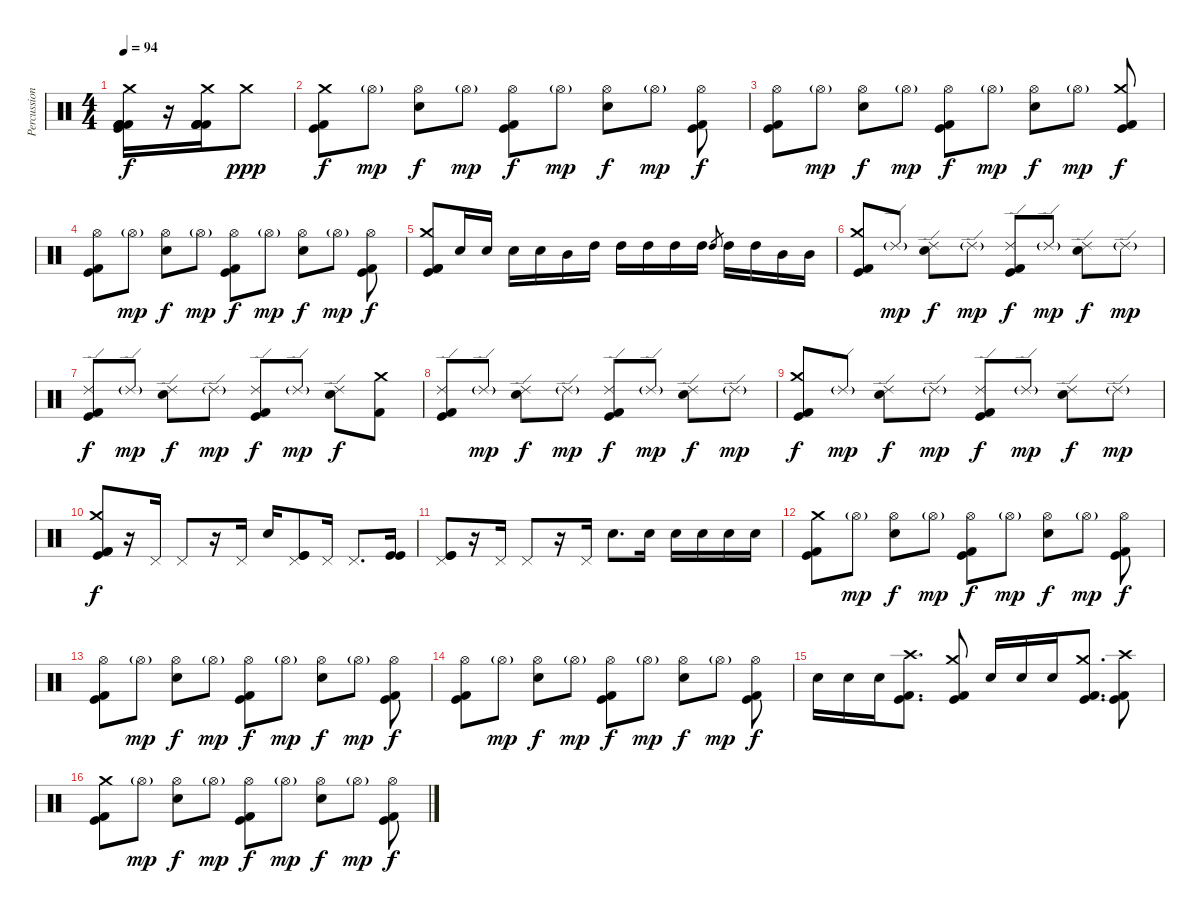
\track ("Percussion" "Percussion") {solo instrument percussion}
\staff {score}
\articulation defaults
\ts (4 4)
\tempo 94
\clef neutral
\ks c
("Kick (hit) 2" "Kick (hit) 2" "Kick (hit) 2" "Crash medium (hit)" "Kick (hit)").16{dy f} r.16 ("Kick (hit) 2" "Kick (hit) 2" "Kick (hit) 2" "Crash medium (hit)" "Kick (hit) 2").16 "Crash medium (hit)".8{dy ppp} |
("Kick (hit) 2" "Crash medium (hit)" "Kick (hit)").8{dy f} "Hi-Hat (open)"{g}.8{dy mp} ("Hi-Hat (open)" "Electric Snare (hit)").8{dy f} "Hi-Hat (open)"{g}.8{dy mp} ("Kick (hit) 2" "Hi-Hat (open)" "Kick (hit)").8{dy f} "Hi-Hat (open)"{g}.8{dy mp} ("Hi-Hat (open)" "Electric Snare (hit)").8{dy f} "Hi-Hat (open)"{g}.8{dy mp} ("Kick (hit) 2" "Hi-Hat (open)" "Kick (hit)").8{dy f} |
("Kick (hit) 2" "Hi-Hat (open)" "Kick (hit)").8 "Hi-Hat (open)"{g}.8{dy mp} ("Hi-Hat (open)" "Electric Snare (hit)").8{dy f} "Hi-Hat (open)"{g}.8{dy mp} ("Kick (hit) 2" "Hi-Hat (open)" "Kick (hit)").8{dy f} "Hi-Hat (open)"{g}.8{dy mp} ("Hi-Hat (open)" "Electric Snare (hit)").8{dy f} "Hi-Hat (open)"{g}.8{dy mp} ("Kick (hit) 2" "Crash medium (hit)" "Kick (hit)").8{dy f} |
("Kick (hit) 2" "Hi-Hat (open)" "Kick (hit)").8 "Hi-Hat (open)"{g}.8{dy mp} ("Hi-Hat (open)" "Electric Snare (hit)").8{dy f} "Hi-Hat (open)"{g}.8{dy mp} ("Kick (hit) 2" "Hi-Hat (open)" "Kick (hit)").8{dy f} "Hi-Hat (open)"{g}.8{dy mp} ("Hi-Hat (open)" "Electric Snare (hit)").8{dy f} "Hi-Hat (open)"{g}.8{dy mp} ("Kick (hit) 2" "Hi-Hat (open)" "Kick (hit)").8{dy f} |
("Kick (hit) 2" "Kick (hit) 2" "Crash medium (hit)" "Kick (hit)").8 "Electric Snare (hit)".16 "Electric Snare (hit)".16 "Electric Snare (hit)".16 "Electric Snare (hit)".16 "Mid Tom (hit)".16 "High Tom (hit)".16 "High Tom (hit)".16 "High Tom (hit)".16 "High Tom (hit)".16 "High Tom (hit)".16 "High Tom (hit)".8{gr} "High Tom (hit)".16 "High Tom (hit)".16 "Mid Tom (hit)".16 "Mid Tom (hit)".16 |
("Kick (hit) 2" "Crash medium (hit)" "Kick (hit)").8 "Ride (edge) 2"{g}.8{dy mp} ("Ride (edge) 2" "Electric Snare (hit)").8{dy f} "Ride (edge) 2"{g}.8{dy mp} ("Kick (hit) 2" "Ride (edge) 2" "Kick (hit)").8{dy f} "Ride (edge) 2"{g}.8{dy mp} ("Ride (edge) 2" "Electric Snare (hit)").8{dy f} "Ride (edge) 2"{g}.8{dy mp} |
("Kick (hit) 2" "Ride (edge) 2" "Kick (hit)").8{dy f} "Ride (edge) 2"{g}.8{dy mp} ("Ride (edge) 2" "Electric Snare (hit)").8{dy f} "Ride (edge) 2"{g}.8{dy mp} ("Kick (hit) 2" "Ride (edge) 2" "Kick (hit)").8{dy f} "Ride (edge) 2"{g}.8{dy mp} ("Ride (edge) 2" "Electric Snare (hit)").8{dy f} ("Crash medium (hit)" "Kick (hit) 2").8 |
("Kick (hit) 2" "Ride (edge) 2" "Kick (hit)").8 "Ride (edge) 2"{g}.8{dy mp} ("Ride (edge) 2" "Electric Snare (hit)").8{dy f} "Ride (edge) 2"{g}.8{dy mp} ("Kick (hit) 2" "Ride (edge) 2" "Kick (hit)").8{dy f} "Ride (edge) 2"{g}.8{dy mp} ("Ride (edge) 2" "Electric Snare (hit)").8{dy f} "Ride (edge) 2"{g}.8{dy mp} |
("Kick (hit) 2" "Crash medium (hit)" "Kick (hit)").8{dy f} "Ride (edge) 2"{g}.8{dy mp} ("Ride (edge) 2" "Electric Snare (hit)").8{dy f} "Ride (edge) 2"{g}.8{dy mp} ("Kick (hit) 2" "Ride (edge) 2" "Kick (hit)").8{dy f} "Ride (edge) 2"{g}.8{dy mp} ("Ride (edge) 2" "Electric Snare (hit)").8{dy f} "Ride (edge) 2"{g}.8{dy mp} |
("Kick (hit) 2" "Kick (hit) 2" "Crash medium (hit)" "Kick (hit)").8{dy f} r.16 "Pedal Hi-Hat (hit)".16 "Pedal Hi-Hat (hit)".8 r.16 "Pedal Hi-Hat (hit)".16 "Electric Snare (hit)".16 ("Pedal Hi-Hat (hit)" "Kick (hit)" "Kick (hit)").8 "Pedal Hi-Hat (hit)".16 "Pedal Hi-Hat (hit)".8{d} ("Kick (hit)" "Kick (hit)").16 |
("Pedal Hi-Hat (hit)" "Kick (hit)" "Kick (hit)").8 r.16 "Pedal Hi-Hat (hit)".16 "Pedal Hi-Hat (hit)".8 r.16 "Pedal Hi-Hat (hit)".16 "Electric Snare (hit)".8{d} "Electric Snare (hit)".16 "Electric Snare (hit)".16 "Electric Snare (hit)".16 "Electric Snare (hit)".16 "Electric Snare (hit)".16 |
("Kick (hit) 2" "Crash medium (hit)" "Kick (hit)").8 "Hi-Hat (open)"{g}.8{dy mp} ("Hi-Hat (open)" "Electric Snare (hit)").8{dy f} "Hi-Hat (open)"{g}.8{dy mp} ("Kick (hit) 2" "Hi-Hat (open)" "Kick (hit)").8{dy f} "Hi-Hat (open)"{g}.8{dy mp} ("Hi-Hat (open)" "Electric Snare (hit)").8{dy f} "Hi-Hat (open)"{g}.8{dy mp} ("Kick (hit) 2" "Hi-Hat (open)" "Kick (hit)").8{dy f} |
("Kick (hit) 2" "Hi-Hat (open)" "Kick (hit)").8 "Hi-Hat (open)"{g}.8{dy mp} ("Hi-Hat (open)" "Electric Snare (hit)").8{dy f} "Hi-Hat (open)"{g}.8{dy mp} ("Kick (hit) 2" "Hi-Hat (open)" "Kick (hit)").8{dy f} "Hi-Hat (open)"{g}.8{dy mp} ("Hi-Hat (open)" "Electric Snare (hit)").8{dy f} "Hi-Hat (open)"{g}.8{dy mp} ("Kick (hit) 2" "Hi-Hat (open)" "Kick (hit)").8{dy f} |
("Kick (hit) 2" "Hi-Hat (open)" "Kick (hit)").8 "Hi-Hat (open)"{g}.8{dy mp} ("Hi-Hat (open)" "Electric Snare (hit)").8{dy f} "Hi-Hat (open)"{g}.8{dy mp} ("Kick (hit) 2" "Hi-Hat (open)" "Kick (hit)").8{dy f} "Hi-Hat (open)"{g}.8{dy mp} ("Hi-Hat (open)" "Electric Snare (hit)").8{dy f} "Hi-Hat (open)"{g}.8{dy mp} ("Kick (hit) 2" "Hi-Hat (open)" "Kick (hit)").8{dy f} |
"Electric Snare (hit)".16 "Electric Snare (hit)".16 "Electric Snare (hit)".16 ("Crash high (hit)" "Kick (hit) 2" "Kick (hit)").8{d} ("Crash medium (hit)" "Kick (hit) 2" "Kick (hit)").8 "Electric Snare (hit)".16 "Electric Snare (hit)".16 "Electric Snare (hit)".16 ("Crash medium (hit)" "Kick (hit) 2" "Kick (hit)").8{d} ("Crash high (hit)" "Kick (hit) 2" "Kick (hit)").8 |
("Kick (hit) 2" "Crash medium (hit)" "Kick (hit)").8 "Hi-Hat (open)"{g}.8{dy mp} ("Hi-Hat (open)" "Electric Snare (hit)").8{dy f} "Hi-Hat (open)"{g}.8{dy mp} ("Kick (hit) 2" "Hi-Hat (open)" "Kick (hit)").8{dy f} "Hi-Hat (open)"{g}.8{dy mp} ("Hi-Hat (open)" "Electric Snare (hit)").8{dy f} "Hi-Hat (open)"{g}.8{dy mp} ("Kick (hit) 2" "Hi-Hat (open)" "Kick (hit)").8{dy f}
